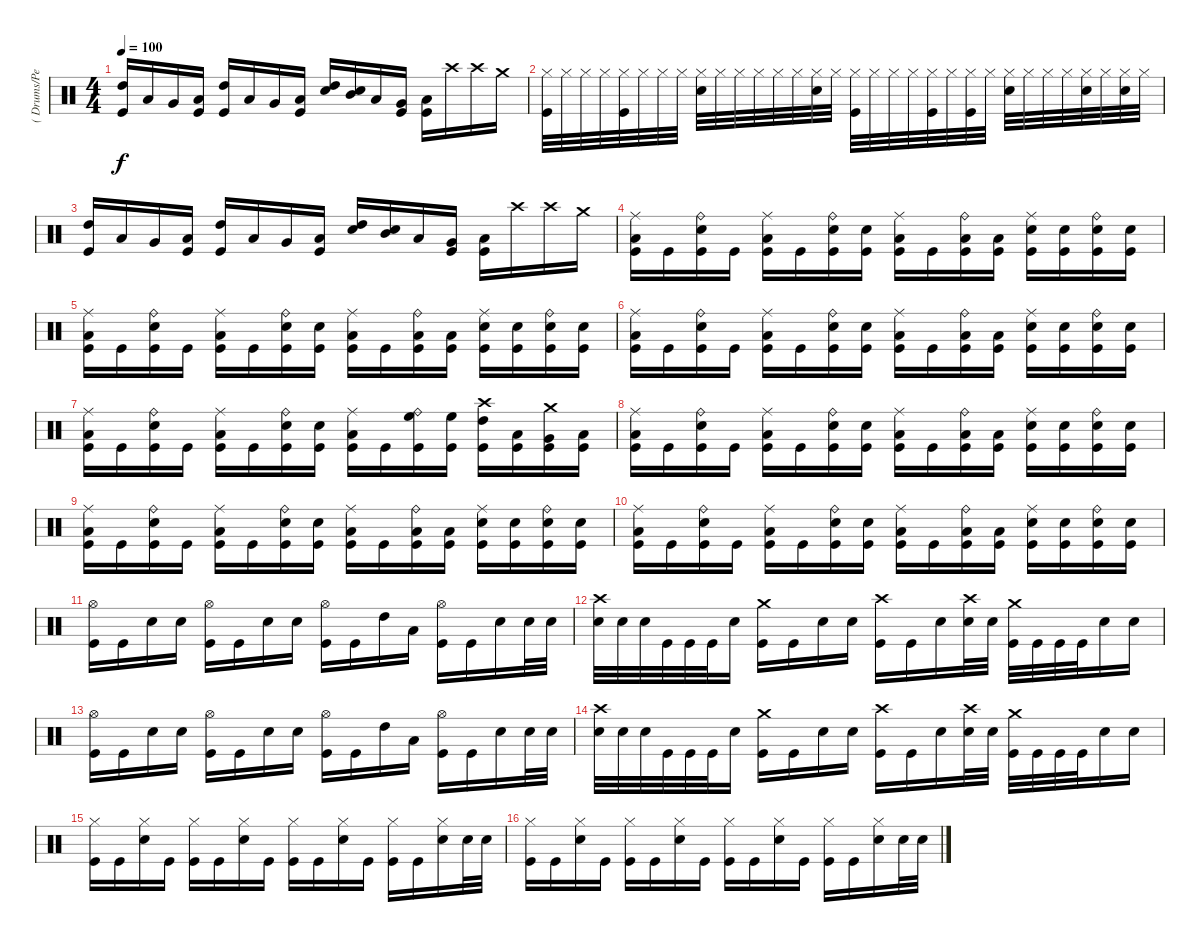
\track ("( Drums/Percussion )" "( Drums/Pe") {instrument percussion}
\staff {score}
\articulation defaults
\ts (4 4)
\tempo 100
\clef neutral
\ks c
("Kick (hit)" "High Tom (hit)").16{dy f} "Low Tom (hit)".16 "Very Low Tom (hit)".16 ("Kick (hit)" "Low Floor Tom (hit)").16 ("Kick (hit)" "High Tom (hit)").16 "Low Tom (hit)".16 "Very Low Tom (hit)".16 ("Kick (hit)" "Low Floor Tom (hit)").16 ("Snare (hit) 2" "High Tom (hit)").16 ("Snare (hit) 2" "Mid Tom (hit)").16 "Low Tom (hit)".16 ("Kick (hit)" "Very Low Tom (hit)").16 ("Kick (hit)" "Low Tom (hit)").16 "Crash high (hit)".16 "Crash high (hit)".16 "Crash medium (hit)".16 |
("Hi-Hat (closed)" "Kick (hit)").32 "Hi-Hat (closed)".32 "Hi-Hat (closed)".32 "Hi-Hat (closed)".32 ("Hi-Hat (closed)" "Kick (hit)").32 "Hi-Hat (closed)".32 "Hi-Hat (closed)".32 "Hi-Hat (closed)".32 ("Hi-Hat (closed)" "Snare (hit) 2").32 "Hi-Hat (closed)".32 "Hi-Hat (closed)".32 "Hi-Hat (closed)".32 "Hi-Hat (closed)".32 "Hi-Hat (closed)".32 ("Hi-Hat (closed)" "Snare (hit) 2").32 "Hi-Hat (closed)".32 ("Hi-Hat (closed)" "Kick (hit)").32 "Hi-Hat (closed)".32 "Hi-Hat (closed)".32 "Hi-Hat (closed)".32 ("Hi-Hat (closed)" "Kick (hit)").32 "Hi-Hat (closed)".32 ("Hi-Hat (closed)" "Kick (hit)").32 "Hi-Hat (closed)".32 ("Hi-Hat (closed)" "Snare (hit) 2").32 "Hi-Hat (closed)".32 "Hi-Hat (closed)".32 "Hi-Hat (closed)".32 ("Hi-Hat (closed)" "Snare (hit) 2").32 "Hi-Hat (closed)".32 ("Hi-Hat (closed)" "Snare (hit) 2").32 "Hi-Hat (closed)".32 |
("Kick (hit)" "High Tom (hit)").16 "Low Tom (hit)".16 "Very Low Tom (hit)".16 ("Kick (hit)" "Low Floor Tom (hit)").16 ("Kick (hit)" "High Tom (hit)").16 "Low Tom (hit)".16 "Very Low Tom (hit)".16 ("Kick (hit)" "Low Floor Tom (hit)").16 ("Snare (hit) 2" "High Tom (hit)").16 ("Snare (hit) 2" "Mid Tom (hit)").16 "Low Tom (hit)".16 ("Kick (hit)" "Very Low Tom (hit)").16 ("Kick (hit)" "Low Tom (hit)").16 "Crash high (hit)".16 "Crash high (hit)".16 "Crash medium (hit)".16 |
("Ride (middle)" "Low Tom (hit)" "Kick (hit)").16 "Kick (hit)".16 ("Ride (bell)" "Snare (hit) 2" "Kick (hit)").16 "Kick (hit)".16 ("Ride (middle)" "Low Tom (hit)" "Kick (hit)").16 "Kick (hit)".16 ("Ride (bell)" "Snare (hit) 2" "Kick (hit)").16 ("Snare (hit) 2" "Kick (hit)").16 ("Ride (middle)" "Low Tom (hit)" "Kick (hit)").16 "Kick (hit)".16 ("Ride (bell)" "Low Tom (hit)" "Kick (hit)").16 ("Low Tom (hit)" "Kick (hit)").16 ("Ride (middle)" "Snare (hit) 2" "Kick (hit)").16 ("Snare (hit) 2" "Kick (hit)").16 ("Ride (bell)" "Snare (hit) 2" "Kick (hit)").16 ("Snare (hit) 2" "Kick (hit)").16 |
("Ride (middle)" "Low Tom (hit)" "Kick (hit)").16 "Kick (hit)".16 ("Ride (bell)" "Snare (hit) 2" "Kick (hit)").16 "Kick (hit)".16 ("Ride (middle)" "Low Tom (hit)" "Kick (hit)").16 "Kick (hit)".16 ("Ride (bell)" "Snare (hit) 2" "Kick (hit)").16 ("Snare (hit) 2" "Kick (hit)").16 ("Ride (middle)" "Low Tom (hit)" "Kick (hit)").16 "Kick (hit)".16 ("Ride (bell)" "Low Tom (hit)" "Kick (hit)").16 ("Low Tom (hit)" "Kick (hit)").16 ("Ride (middle)" "Snare (hit) 2" "Kick (hit)").16 ("Snare (hit) 2" "Kick (hit)").16 ("Ride (bell)" "Snare (hit) 2" "Kick (hit)").16 ("Snare (hit) 2" "Kick (hit)").16 |
("Ride (middle)" "Low Tom (hit)" "Kick (hit)").16 "Kick (hit)".16 ("Ride (bell)" "Snare (hit) 2" "Kick (hit)").16 "Kick (hit)".16 ("Ride (middle)" "Low Tom (hit)" "Kick (hit)").16 "Kick (hit)".16 ("Ride (bell)" "Snare (hit) 2" "Kick (hit)").16 ("Snare (hit) 2" "Kick (hit)").16 ("Ride (middle)" "Low Tom (hit)" "Kick (hit)").16 "Kick (hit)".16 ("Ride (bell)" "Low Tom (hit)" "Kick (hit)").16 ("Low Tom (hit)" "Kick (hit)").16 ("Ride (middle)" "Snare (hit) 2" "Kick (hit)").16 ("Snare (hit) 2" "Kick (hit)").16 ("Ride (bell)" "Snare (hit) 2" "Kick (hit)").16 ("Snare (hit) 2" "Kick (hit)").16 |
("Ride (middle)" "Low Tom (hit)" "Kick (hit)").16 "Kick (hit)".16 ("Ride (bell)" "Snare (hit) 2" "Kick (hit)").16 "Kick (hit)".16 ("Ride (middle)" "Low Tom (hit)" "Kick (hit)").16 "Kick (hit)".16 ("Ride (bell)" "Snare (hit) 2" "Kick (hit)").16 ("Snare (hit) 2" "Kick (hit)").16 ("Ride (middle)" "Low Tom (hit)" "Kick (hit)").16 "Kick (hit)".16 ("Ride (bell)" "High Floor Tom (hit)" "Kick (hit)").16 ("High Floor Tom (hit)" "Kick (hit)").16 ("Crash high (hit)" "High Tom (hit)" "Kick (hit)").16 ("Low Tom (hit)" "Kick (hit)").16 ("Crash medium (hit)" "Very Low Tom (hit)" "Kick (hit)").16 ("Low Tom (hit)" "Kick (hit)").16 |
("Ride (middle)" "Low Tom (hit)" "Kick (hit)").16 "Kick (hit)".16 ("Ride (bell)" "Snare (hit) 2" "Kick (hit)").16 "Kick (hit)".16 ("Ride (middle)" "Low Tom (hit)" "Kick (hit)").16 "Kick (hit)".16 ("Ride (bell)" "Snare (hit) 2" "Kick (hit)").16 ("Snare (hit) 2" "Kick (hit)").16 ("Ride (middle)" "Low Tom (hit)" "Kick (hit)").16 "Kick (hit)".16 ("Ride (bell)" "Low Tom (hit)" "Kick (hit)").16 ("Low Tom (hit)" "Kick (hit)").16 ("Ride (middle)" "Snare (hit) 2" "Kick (hit)").16 ("Snare (hit) 2" "Kick (hit)").16 ("Ride (bell)" "Snare (hit) 2" "Kick (hit)").16 ("Snare (hit) 2" "Kick (hit)").16 |
("Ride (middle)" "Low Tom (hit)" "Kick (hit)").16 "Kick (hit)".16 ("Ride (bell)" "Snare (hit) 2" "Kick (hit)").16 "Kick (hit)".16 ("Ride (middle)" "Low Tom (hit)" "Kick (hit)").16 "Kick (hit)".16 ("Ride (bell)" "Snare (hit) 2" "Kick (hit)").16 ("Snare (hit) 2" "Kick (hit)").16 ("Ride (middle)" "Low Tom (hit)" "Kick (hit)").16 "Kick (hit)".16 ("Ride (bell)" "Low Tom (hit)" "Kick (hit)").16 ("Low Tom (hit)" "Kick (hit)").16 ("Ride (middle)" "Snare (hit) 2" "Kick (hit)").16 ("Snare (hit) 2" "Kick (hit)").16 ("Ride (bell)" "Snare (hit) 2" "Kick (hit)").16 ("Snare (hit) 2" "Kick (hit)").16 |
("Ride (middle)" "Low Tom (hit)" "Kick (hit)").16 "Kick (hit)".16 ("Ride (bell)" "Snare (hit) 2" "Kick (hit)").16 "Kick (hit)".16 ("Ride (middle)" "Low Tom (hit)" "Kick (hit)").16 "Kick (hit)".16 ("Ride (bell)" "Snare (hit) 2" "Kick (hit)").16 ("Snare (hit) 2" "Kick (hit)").16 ("Ride (middle)" "Low Tom (hit)" "Kick (hit)").16 "Kick (hit)".16 ("Ride (bell)" "Low Tom (hit)" "Kick (hit)").16 ("Low Tom (hit)" "Kick (hit)").16 ("Ride (middle)" "Snare (hit) 2" "Kick (hit)").16 ("Snare (hit) 2" "Kick (hit)").16 ("Ride (bell)" "Snare (hit) 2" "Kick (hit)").16 ("Snare (hit) 2" "Kick (hit)").16 |
("Hi-Hat (open)" "Kick (hit)").16 "Kick (hit)".16 "Snare (hit) 2".16 "Snare (hit) 2".16 ("Hi-Hat (open)" "Kick (hit)").16 "Kick (hit)".16 "Snare (hit) 2".16 "Snare (hit) 2".16 ("Hi-Hat (open)" "Kick (hit)").16 "Kick (hit)".16 "High Tom (hit)".16 "Low Tom (hit)".16 ("Hi-Hat (open)" "Kick (hit)").16 "Kick (hit)".16 "Snare (hit) 2".16 "Snare (hit) 2".32 "Snare (hit) 2".32 |
("Crash high (hit)" "Snare (hit) 2").32 "Snare (hit) 2".32 "Snare (hit) 2".32 "Kick (hit)".32 "Kick (hit)".32 "Kick (hit)".32 "Snare (hit) 2".16 ("Crash medium (hit)" "Kick (hit)").16 "Kick (hit)".16 "Snare (hit) 2".16 "Snare (hit) 2".16 ("Crash high (hit)" "Kick (hit)").16 "Kick (hit)".16 "Snare (hit) 2".16 ("Crash high (hit)" "Snare (hit) 2").32 "Snare (hit) 2".32 ("Crash medium (hit)" "Kick (hit)").32 "Kick (hit)".32 "Kick (hit)".32 "Kick (hit)".32 "Snare (hit) 2".16 "Snare (hit) 2".16 |
("Hi-Hat (open)" "Kick (hit)").16 "Kick (hit)".16 "Snare (hit) 2".16 "Snare (hit) 2".16 ("Hi-Hat (open)" "Kick (hit)").16 "Kick (hit)".16 "Snare (hit) 2".16 "Snare (hit) 2".16 ("Hi-Hat (open)" "Kick (hit)").16 "Kick (hit)".16 "High Tom (hit)".16 "Low Tom (hit)".16 ("Hi-Hat (open)" "Kick (hit)").16 "Kick (hit)".16 "Snare (hit) 2".16 "Snare (hit) 2".32 "Snare (hit) 2".32 |
("Crash high (hit)" "Snare (hit) 2").32 "Snare (hit) 2".32 "Snare (hit) 2".32 "Kick (hit)".32 "Kick (hit)".32 "Kick (hit)".32 "Snare (hit) 2".16 ("Crash medium (hit)" "Kick (hit)").16 "Kick (hit)".16 "Snare (hit) 2".16 "Snare (hit) 2".16 ("Crash high (hit)" "Kick (hit)").16 "Kick (hit)".16 "Snare (hit) 2".16 ("Crash high (hit)" "Snare (hit) 2").32 "Snare (hit) 2".32 ("Crash medium (hit)" "Kick (hit)").32 "Kick (hit)".32 "Kick (hit)".32 "Kick (hit)".32 "Snare (hit) 2".16 "Snare (hit) 2".16 |
("Hi-Hat (closed)" "Kick (hit)").16 "Kick (hit)".16 ("Hi-Hat (closed)" "Snare (hit) 2").16 "Kick (hit)".16 ("Hi-Hat (closed)" "Kick (hit)").16 "Kick (hit)".16 ("Hi-Hat (closed)" "Snare (hit) 2").16 "Kick (hit)".16 ("Hi-Hat (closed)" "Kick (hit)").16 "Kick (hit)".16 ("Hi-Hat (closed)" "Snare (hit) 2").16 "Kick (hit)".16 ("Hi-Hat (closed)" "Kick (hit)").16 "Kick (hit)".16 ("Hi-Hat (closed)" "Snare (hit) 2").16 "Snare (hit) 2".32 "Snare (hit) 2".32 |
("Hi-Hat (closed)" "Kick (hit)").16 "Kick (hit)".16 ("Hi-Hat (closed)" "Snare (hit) 2").16 "Kick (hit)".16 ("Hi-Hat (closed)" "Kick (hit)").16 "Kick (hit)".16 ("Hi-Hat (closed)" "Snare (hit) 2").16 "Kick (hit)".16 ("Hi-Hat (closed)" "Kick (hit)").16 "Kick (hit)".16 ("Hi-Hat (closed)" "Snare (hit) 2").16 "Kick (hit)".16 ("Hi-Hat (closed)" "Kick (hit)").16 "Kick (hit)".16 ("Hi-Hat (closed)" "Snare (hit) 2").16 "Snare (hit) 2".32 "Snare (hit) 2".32
